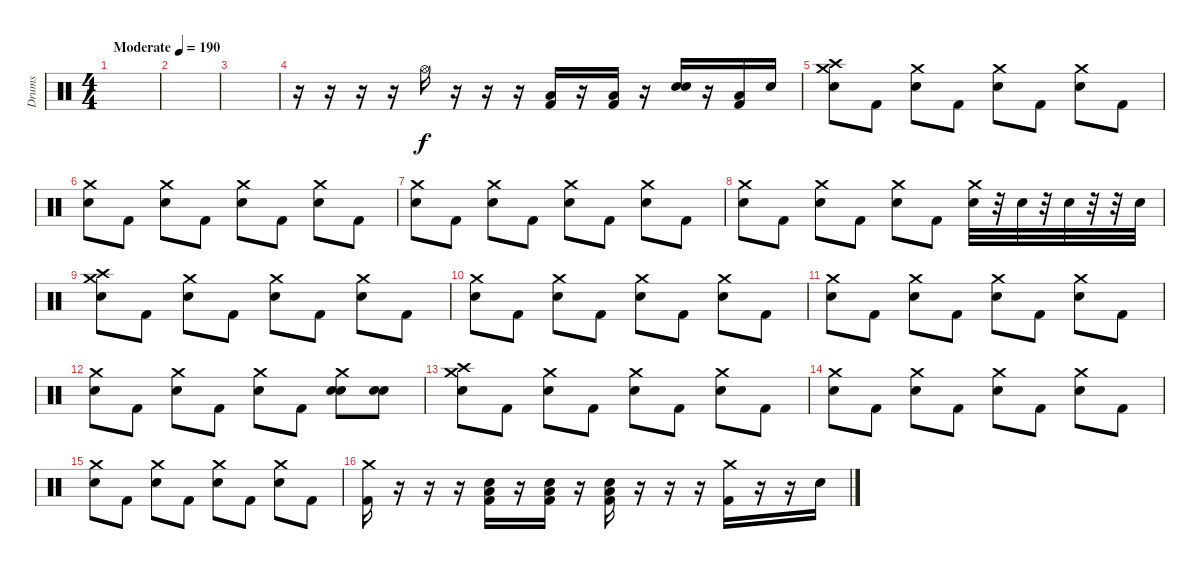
\track ("Drums" "Drums") {instrument percussion}
\staff {score}
\articulation defaults
\ts (4 4)
\tempo (190 "Moderate")
\clef neutral
\ks c
|
|
|
r.16 r.16 r.16 r.16 "Hi-Hat (open)".16 r.16 r.16 r.16 ("Low Floor Tom (hit)" "Kick (hit) 2").16 r.16 ("Low Floor Tom (hit)" "Kick (hit) 2").16 r.16 ("Electric Snare (hit)" "Snare (hit) 2").16 r.16 ("Low Floor Tom (hit)" "Kick (hit) 2").16 "Snare (hit)".16 |
("Crash high (hit)" "Crash medium (hit)" "Snare (hit)").8 "Kick (hit) 2".8 ("Crash medium (hit)" "Snare (hit) 2").8 "Kick (hit) 2".8 ("Crash medium (hit)" "Snare (hit) 2").8 "Kick (hit) 2".8 ("Crash medium (hit)" "Snare (hit) 2").8 "Kick (hit) 2".8 |
("Crash medium (hit)" "Snare (hit) 2").8 "Kick (hit) 2".8 ("Crash medium (hit)" "Snare (hit) 2").8 "Kick (hit) 2".8 ("Crash medium (hit)" "Snare (hit) 2").8 "Kick (hit) 2".8 ("Crash medium (hit)" "Snare (hit) 2").8 "Kick (hit) 2".8 |
("Crash medium (hit)" "Snare (hit) 2").8 "Kick (hit) 2".8 ("Crash medium (hit)" "Snare (hit) 2").8 "Kick (hit) 2".8 ("Crash medium (hit)" "Snare (hit) 2").8 "Kick (hit) 2".8 ("Crash medium (hit)" "Snare (hit) 2").8 "Kick (hit) 2".8 |
("Crash medium (hit)" "Snare (hit) 2").8 "Kick (hit) 2".8 ("Crash medium (hit)" "Snare (hit) 2").8 "Kick (hit) 2".8 ("Crash medium (hit)" "Snare (hit) 2").8 "Kick (hit) 2".8 ("Crash medium (hit)" "Snare (hit) 2").32 r.32 "Snare (hit) 2".32 r.32 "Snare (hit) 2".32 r.32 r.32 "Snare (hit) 2".32 |
("Crash high (hit)" "Crash medium (hit)" "Snare (hit) 2").8 "Kick (hit) 2".8 ("Crash medium (hit)" "Snare (hit) 2").8 "Kick (hit) 2".8 ("Crash medium (hit)" "Snare (hit) 2").8 "Kick (hit) 2".8 ("Crash medium (hit)" "Snare (hit) 2").8 "Kick (hit) 2".8 |
("Crash medium (hit)" "Snare (hit) 2").8 "Kick (hit) 2".8 ("Crash medium (hit)" "Snare (hit) 2").8 "Kick (hit) 2".8 ("Crash medium (hit)" "Snare (hit) 2").8 "Kick (hit) 2".8 ("Crash medium (hit)" "Snare (hit) 2").8 "Kick (hit) 2".8 |
("Crash medium (hit)" "Snare (hit) 2").8 "Kick (hit) 2".8 ("Crash medium (hit)" "Snare (hit) 2").8 "Kick (hit) 2".8 ("Crash medium (hit)" "Snare (hit) 2").8 "Kick (hit) 2".8 ("Crash medium (hit)" "Snare (hit) 2").8 "Kick (hit) 2".8 |
("Crash medium (hit)" "Snare (hit) 2").8 "Kick (hit) 2".8 ("Crash medium (hit)" "Snare (hit) 2").8 "Kick (hit) 2".8 ("Crash medium (hit)" "Snare (hit) 2").8 "Kick (hit) 2".8 ("Crash medium (hit)" "Electric Snare (hit)" "Snare (hit) 2").8 ("Electric Snare (hit)" "Snare (hit) 2").8 |
("Crash high (hit)" "Crash medium (hit)" "Snare (hit) 2").8 "Kick (hit) 2".8 ("Crash medium (hit)" "Snare (hit) 2").8 "Kick (hit) 2".8 ("Crash medium (hit)" "Snare (hit) 2").8 "Kick (hit) 2".8 ("Crash medium (hit)" "Snare (hit) 2").8 "Kick (hit) 2".8 |
("Crash medium (hit)" "Snare (hit) 2").8 "Kick (hit) 2".8 ("Crash medium (hit)" "Snare (hit) 2").8 "Kick (hit) 2".8 ("Crash medium (hit)" "Snare (hit) 2").8 "Kick (hit) 2".8 ("Crash medium (hit)" "Snare (hit) 2").8 "Kick (hit) 2".8 |
("Crash medium (hit)" "Snare (hit) 2").8 "Kick (hit) 2".8 ("Crash medium (hit)" "Snare (hit) 2").8 "Kick (hit) 2".8 ("Crash medium (hit)" "Snare (hit) 2").8 "Kick (hit) 2".8 ("Crash medium (hit)" "Snare (hit) 2").8 "Kick (hit) 2".8 |
("Crash medium (hit)" "Kick (hit) 2").16 r.16 r.16 r.16 ("Electric Snare (hit)" "Low Floor Tom (hit)" "Kick (hit) 2").16 r.16 ("Electric Snare (hit)" "Low Floor Tom (hit)" "Kick (hit) 2").16 r.16 ("Electric Snare (hit)" "Low Floor Tom (hit)" "Kick (hit) 2").16 r.16 r.16 r.16 ("Crash medium (hit)" "Kick (hit) 2").16 r.16 r.16 "Snare (hit)".16
